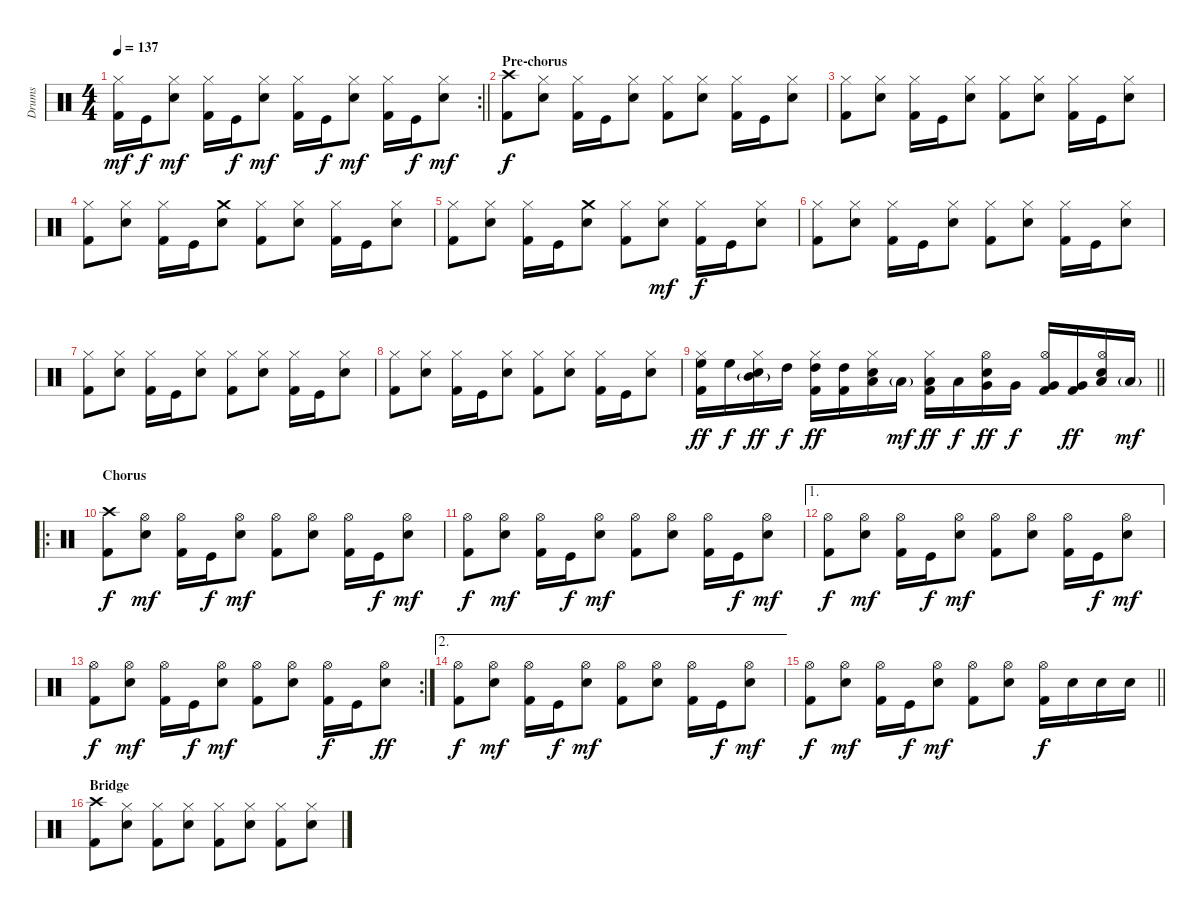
\track ("Drums" "Drums") {instrument percussion}
\staff {score}
\articulation defaults
\rc 2
\ts (4 4)
\tempo 137
\clef neutral
\barLineRight lightlight
\ks c
("Hi-Hat (closed)" "Kick (hit) 2").16{dy mf} "Kick (hit)".16{dy f} ("Hi-Hat (closed)" "Snare (hit) 2").8{dy mf} ("Hi-Hat (closed)" "Kick (hit) 2").16 "Kick (hit)".16{dy f} ("Hi-Hat (closed)" "Snare (hit) 2").8{dy mf} ("Hi-Hat (closed)" "Kick (hit) 2").16 "Kick (hit)".16{dy f} ("Hi-Hat (closed)" "Snare (hit) 2").8{dy mf} ("Hi-Hat (closed)" "Kick (hit) 2").16 "Kick (hit)".16{dy f} ("Hi-Hat (closed)" "Snare (hit) 2").8{dy mf} |
\section ("" "Pre-chorus")
("Crash high (hit)" "Kick (hit) 2").8{dy f} ("Hi-Hat (closed)" "Snare (hit) 2").8 ("Hi-Hat (closed)" "Kick (hit) 2").16 "Kick (hit)".16 ("Hi-Hat (closed)" "Snare (hit) 2").8 ("Hi-Hat (closed)" "Kick (hit) 2").8 ("Hi-Hat (closed)" "Snare (hit) 2").8 ("Hi-Hat (closed)" "Kick (hit) 2").16 "Kick (hit)".16 ("Hi-Hat (closed)" "Snare (hit) 2").8 |
("Hi-Hat (closed)" "Kick (hit) 2").8 ("Hi-Hat (closed)" "Snare (hit) 2").8 ("Hi-Hat (closed)" "Kick (hit) 2").16 "Kick (hit)".16 ("Hi-Hat (closed)" "Snare (hit) 2").8 ("Hi-Hat (closed)" "Kick (hit) 2").8 ("Hi-Hat (closed)" "Snare (hit) 2").8 ("Hi-Hat (closed)" "Kick (hit) 2").16 "Kick (hit)".16 ("Hi-Hat (closed)" "Snare (hit) 2").8 |
("Hi-Hat (closed)" "Kick (hit) 2").8 ("Hi-Hat (closed)" "Snare (hit) 2").8 ("Hi-Hat (closed)" "Kick (hit) 2").16 "Kick (hit)".16 ("Crash medium (hit)" "Snare (hit) 2").8 ("Hi-Hat (closed)" "Kick (hit) 2").8 ("Hi-Hat (closed)" "Snare (hit) 2").8 ("Hi-Hat (closed)" "Kick (hit) 2").16 "Kick (hit)".16 ("Hi-Hat (closed)" "Snare (hit) 2").8 |
("Hi-Hat (closed)" "Kick (hit) 2").8 ("Hi-Hat (closed)" "Snare (hit) 2").8 ("Hi-Hat (closed)" "Kick (hit) 2").16 "Kick (hit)".16 ("Crash medium (hit)" "Snare (hit) 2").8 ("Hi-Hat (closed)" "Kick (hit) 2").8 ("Hi-Hat (closed)" "Snare (hit) 2").8{dy mf} ("Hi-Hat (closed)" "Kick (hit) 2").16{dy f} "Kick (hit)".16 ("Hi-Hat (closed)" "Snare (hit) 2").8 |
("Hi-Hat (closed)" "Kick (hit) 2").8 ("Hi-Hat (closed)" "Snare (hit) 2").8 ("Hi-Hat (closed)" "Kick (hit) 2").16 "Kick (hit)".16 ("Hi-Hat (closed)" "Snare (hit) 2").8 ("Hi-Hat (closed)" "Kick (hit) 2").8 ("Hi-Hat (closed)" "Snare (hit) 2").8 ("Hi-Hat (closed)" "Kick (hit) 2").16 "Kick (hit)".16 ("Hi-Hat (closed)" "Snare (hit) 2").8 |
("Hi-Hat (closed)" "Kick (hit) 2").8 ("Hi-Hat (closed)" "Snare (hit) 2").8 ("Hi-Hat (closed)" "Kick (hit) 2").16 "Kick (hit)".16 ("Hi-Hat (closed)" "Snare (hit) 2").8 ("Hi-Hat (closed)" "Kick (hit) 2").8 ("Hi-Hat (closed)" "Snare (hit) 2").8 ("Hi-Hat (closed)" "Kick (hit) 2").16 "Kick (hit)".16 ("Hi-Hat (closed)" "Snare (hit) 2").8 |
("Hi-Hat (closed)" "Kick (hit) 2").8 ("Hi-Hat (closed)" "Snare (hit) 2").8 ("Hi-Hat (closed)" "Kick (hit) 2").16 "Kick (hit)".16 ("Hi-Hat (closed)" "Snare (hit) 2").8 ("Hi-Hat (closed)" "Kick (hit) 2").8 ("Hi-Hat (closed)" "Snare (hit) 2").8 ("Hi-Hat (closed)" "Kick (hit) 2").16 "Kick (hit)".16 ("Hi-Hat (closed)" "Snare (hit) 2").8 |
\barLineRight lightlight
("Hi-Hat (closed)" "High Floor Tom (hit)" "Kick (hit) 2").16{dy ff} "High Floor Tom (hit)".16{dy f} ("Hi-Hat (closed)" "Mid Tom (hit)"{g} "Snare (hit) 2").16{dy ff} "High Tom (hit)".16{dy f} ("Hi-Hat (closed)" "High Tom (hit)" "Kick (hit) 2").16{dy ff} ("High Tom (hit)" "Kick (hit) 2").16 ("Hi-Hat (closed)" "Low Tom (hit)" "Snare (hit) 2").16 "Low Tom (hit)"{g}.16{dy mf} ("Hi-Hat (closed)" "Low Tom (hit)" "Kick (hit) 2").16{dy ff} "Low Tom (hit)".16{dy f} ("Hi-Hat (open)" "Very Low Tom (hit)" "Snare (hit) 2").16{dy ff} "Very Low Tom (hit)".16{dy f} ("Hi-Hat (open)" "Very Low Tom (hit)" "Kick (hit) 2").16 ("Very Low Tom (hit)" "Kick (hit) 2").16{dy ff} ("Hi-Hat (open)" "Low Floor Tom (hit)" "Snare (hit) 2").16 "Low Floor Tom (hit)"{g}.16{dy mf} |
\ro
\section ("" "Chorus")
("Crash high (hit)" "Kick (hit) 2").8{dy f} ("Hi-Hat (open)" "Snare (hit) 2").8{dy mf} ("Hi-Hat (open)" "Kick (hit) 2").16 "Kick (hit)".16{dy f} ("Hi-Hat (open)" "Snare (hit) 2").8{dy mf} ("Hi-Hat (open)" "Kick (hit) 2").8 ("Hi-Hat (open)" "Snare (hit) 2").8 ("Hi-Hat (open)" "Kick (hit) 2").16 "Kick (hit)".16{dy f} ("Hi-Hat (open)" "Snare (hit) 2").8{dy mf} |
("Hi-Hat (open)" "Kick (hit) 2").8{dy f} ("Hi-Hat (open)" "Snare (hit) 2").8{dy mf} ("Hi-Hat (open)" "Kick (hit) 2").16 "Kick (hit)".16{dy f} ("Hi-Hat (open)" "Snare (hit) 2").8{dy mf} ("Hi-Hat (open)" "Kick (hit) 2").8 ("Hi-Hat (open)" "Snare (hit) 2").8 ("Hi-Hat (open)" "Kick (hit) 2").16 "Kick (hit)".16{dy f} ("Hi-Hat (open)" "Snare (hit) 2").8{dy mf} |
\ae 1
("Hi-Hat (open)" "Kick (hit) 2").8{dy f} ("Hi-Hat (open)" "Snare (hit) 2").8{dy mf} ("Hi-Hat (open)" "Kick (hit) 2").16 "Kick (hit)".16{dy f} ("Hi-Hat (open)" "Snare (hit) 2").8{dy mf} ("Hi-Hat (open)" "Kick (hit) 2").8 ("Hi-Hat (open)" "Snare (hit) 2").8 ("Hi-Hat (open)" "Kick (hit) 2").16 "Kick (hit)".16{dy f} ("Hi-Hat (open)" "Snare (hit) 2").8{dy mf} |
\rc 2
("Hi-Hat (open)" "Kick (hit) 2").8{dy f} ("Hi-Hat (open)" "Snare (hit) 2").8{dy mf} ("Hi-Hat (open)" "Kick (hit) 2").16 "Kick (hit)".16{dy f} ("Hi-Hat (open)" "Snare (hit) 2").8{dy mf} ("Hi-Hat (open)" "Kick (hit) 2").8 ("Hi-Hat (open)" "Snare (hit) 2").8 ("Hi-Hat (open)" "Kick (hit) 2").16{dy f} "Kick (hit)".16 ("Hi-Hat (open)" "Snare (hit) 2").8{dy ff} |
\ae 2
("Hi-Hat (open)" "Kick (hit) 2").8{dy f} ("Hi-Hat (open)" "Snare (hit) 2").8{dy mf} ("Hi-Hat (open)" "Kick (hit) 2").16 "Kick (hit)".16{dy f} ("Hi-Hat (open)" "Snare (hit) 2").8{dy mf} ("Hi-Hat (open)" "Kick (hit) 2").8 ("Hi-Hat (open)" "Snare (hit) 2").8 ("Hi-Hat (open)" "Kick (hit) 2").16 "Kick (hit)".16{dy f} ("Hi-Hat (open)" "Snare (hit) 2").8{dy mf} |
\barLineRight lightlight
("Hi-Hat (open)" "Kick (hit) 2").8{dy f} ("Hi-Hat (open)" "Snare (hit) 2").8{dy mf} ("Hi-Hat (open)" "Kick (hit) 2").16 "Kick (hit)".16{dy f} ("Hi-Hat (open)" "Snare (hit) 2").8{dy mf} ("Hi-Hat (open)" "Kick (hit) 2").8 ("Hi-Hat (open)" "Snare (hit) 2").8 ("Hi-Hat (open)" "Kick (hit) 2").16{dy f} "Snare (hit) 2".16 "Snare (hit) 2".16 "Snare (hit) 2".16 |
\section ("" "Bridge")
("Crash high (hit)" "Kick (hit) 2").8 ("Hi-Hat (closed)" "Snare (hit) 2").8 ("Hi-Hat (closed)" "Kick (hit) 2").8 ("Hi-Hat (closed)" "Snare (hit) 2").8 ("Hi-Hat (closed)" "Kick (hit) 2").8 ("Hi-Hat (closed)" "Snare (hit) 2").8 ("Hi-Hat (closed)" "Kick (hit) 2").8 ("Hi-Hat (closed)" "Snare (hit) 2").8
